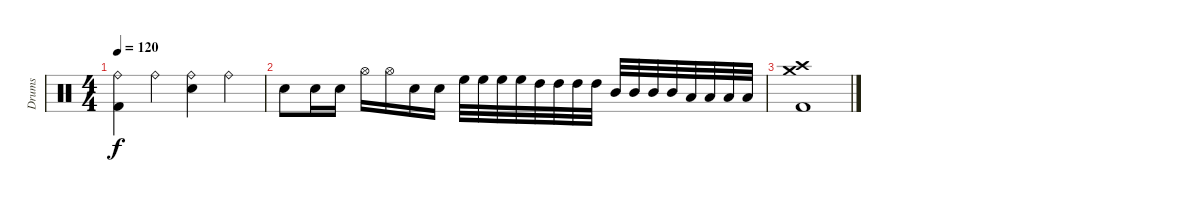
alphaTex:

\track ("Drums" "Drums") {instrument percussion}
\staff {score}
\articulation defaults
\ts (4 4)
\tempo 120
\clef neutral
\ks c
("Ride (bell)" "Kick (hit) 2").4{dy f} "Ride (bell)".4 ("Ride (bell)" "Snare (hit) 2").4 "Ride (bell)".4 |
"Snare (hit) 2".8 "Snare (hit) 2".16 "Snare (hit) 2".16 "Hi-Hat (open)".16 "Hi-Hat (open)".16 "Snare (hit) 2".16 "Snare (hit) 2".16 "High Floor Tom (hit)".32 "High Floor Tom (hit)".32 "High Floor Tom (hit)".32 "High Floor Tom (hit)".32 "High Tom (hit)".32 "High Tom (hit)".32 "High Tom (hit)".32 "High Tom (hit)".32 "Mid Tom (hit)".32 "Mid Tom (hit)".32 "Mid Tom (hit)".32 "Mid Tom (hit)".32 "Low Tom (hit)".32 "Low Tom (hit)".32 "Low Tom (hit)".32 "Low Tom (hit)".32 |
("Crash high (hit)" "Crash medium (hit)" "Kick (hit) 2").1
